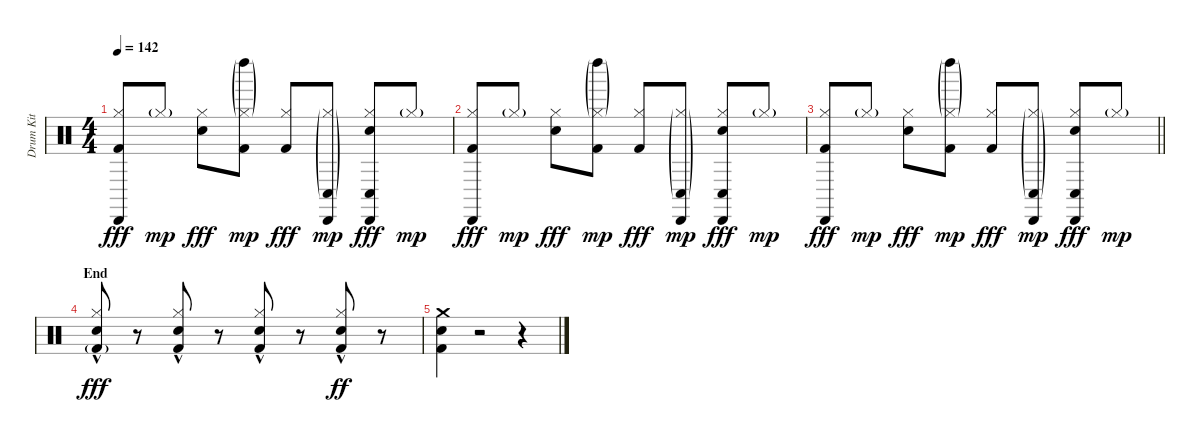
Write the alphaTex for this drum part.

\track ("Drum Kit" "Drum Kit") {instrument percussion}
\staff {score}
\articulation defaults
\ts (4 4)
\tempo 142
\clef neutral
\ks c
("Cabasa (hit)" "Kick (hit) 2" "Hi-Hat (closed)").8{dy fff} "Hi-Hat (closed)"{g}.8{dy mp} ("Snare (hit) 2" "Hi-Hat (closed)").8{dy fff} ("Kick (hit) 2" "Left Maraca (hit)"{g} "Hi-Hat (closed)"{g}).8{dy mp} ("Kick (hit) 2" "Hi-Hat (closed)").8{dy fff} ("Cabasa (hit)" "Conga low (hit)"{g} "Hi-Hat (closed)"{g}).8{dy mp} ("Conga low (hit)" "Snare (hit) 2" "Cabasa (hit)" "Hi-Hat (closed)").8{dy fff} "Hi-Hat (closed)"{g}.8{dy mp} |
("Cabasa (hit)" "Kick (hit) 2" "Hi-Hat (closed)").8{dy fff} "Hi-Hat (closed)"{g}.8{dy mp} ("Snare (hit) 2" "Hi-Hat (closed)").8{dy fff} ("Kick (hit) 2" "Left Maraca (hit)"{g} "Hi-Hat (closed)"{g}).8{dy mp} ("Kick (hit) 2" "Hi-Hat (closed)").8{dy fff} ("Cabasa (hit)" "Conga low (hit)"{g} "Hi-Hat (closed)"{g}).8{dy mp} ("Conga low (hit)" "Snare (hit) 2" "Cabasa (hit)" "Hi-Hat (closed)").8{dy fff} "Hi-Hat (closed)"{g}.8{dy mp} |
\barLineRight lightlight
("Cabasa (hit)" "Kick (hit) 2" "Hi-Hat (closed)").8{dy fff} "Hi-Hat (closed)"{g}.8{dy mp} ("Snare (hit) 2" "Hi-Hat (closed)").8{dy fff} ("Kick (hit) 2" "Left Maraca (hit)"{g} "Hi-Hat (closed)"{g}).8{dy mp} ("Kick (hit) 2" "Hi-Hat (closed)").8{dy fff} ("Cabasa (hit)" "Conga low (hit)"{g} "Hi-Hat (closed)"{g}).8{dy mp} ("Conga low (hit)" "Snare (hit) 2" "Cabasa (hit)" "Hi-Hat (closed)").8{dy fff} "Hi-Hat (closed)"{g}.8{dy mp} |
\section ("" "End")
("Hi-Hat (closed)" "Snare (hit) 2"{hac} "Kick (hit) 2"{g}).8{dy fff} r.8 ("Kick (hit) 2" "Hi-Hat (closed)" "Snare (hit) 2"{hac}).8 r.8 ("Hi-Hat (closed)" "Kick (hit) 2" "Snare (hit) 2"{hac}).8 r.8 ("Hi-Hat (closed)" "Snare (hit) 2"{hac} "Kick (hit) 2").8{dy ff} r.8 |
("Crash medium (hit)" "Snare (hit) 2" "Kick (hit) 2").4 r.2 r.4
